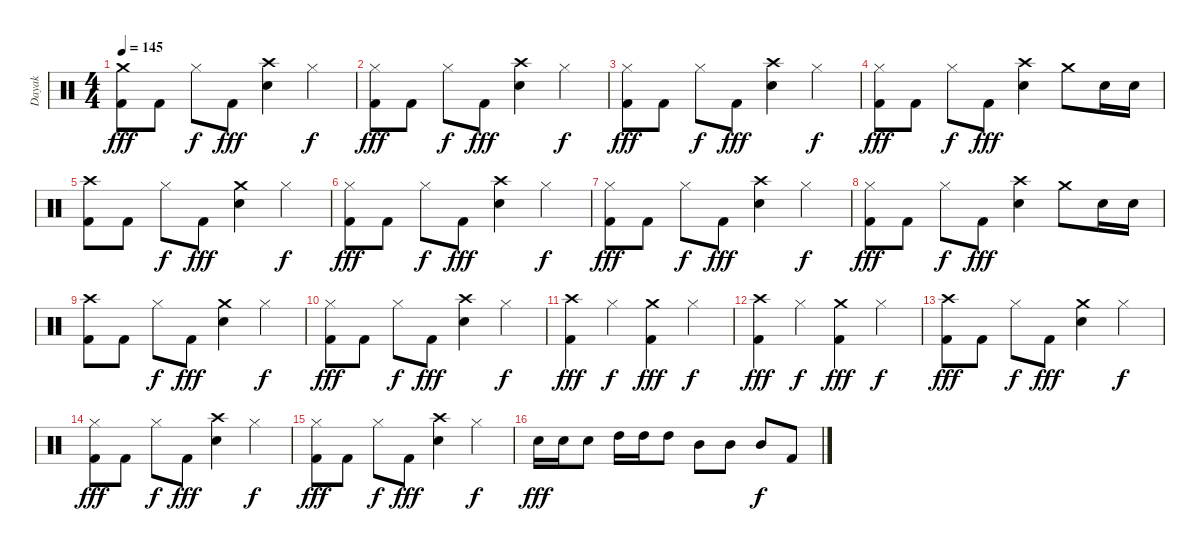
\track ("Dayak" "Dayak") {instrument percussion}
\staff {score}
\articulation defaults
\ts (4 4)
\tempo 145
\clef neutral
\ks c
("Crash medium (hit)" "Kick (hit) 2").8{dy fff} "Kick (hit) 2".8 "Hi-Hat (closed)".8{dy f} "Kick (hit) 2".8{dy fff} ("Crash high (hit)" "Snare (hit) 2").4 "Hi-Hat (closed)".4{dy f} |
("Hi-Hat (closed)" "Kick (hit) 2").8{dy fff} "Kick (hit) 2".8 "Hi-Hat (closed)".8{dy f} "Kick (hit) 2".8{dy fff} ("Crash high (hit)" "Snare (hit) 2").4 "Hi-Hat (closed)".4{dy f} |
("Hi-Hat (closed)" "Kick (hit) 2").8{dy fff} "Kick (hit) 2".8 "Hi-Hat (closed)".8{dy f} "Kick (hit) 2".8{dy fff} ("Crash high (hit)" "Snare (hit) 2").4 "Hi-Hat (closed)".4{dy f} |
("Hi-Hat (closed)" "Kick (hit) 2").8{dy fff} "Kick (hit) 2".8 "Hi-Hat (closed)".8{dy f} "Kick (hit) 2".8{dy fff} ("Crash high (hit)" "Snare (hit) 2").4 "Crash medium (hit)".8 "Snare (hit) 2".16 "Snare (hit) 2".16 |
("Crash high (hit)" "Kick (hit) 2").8 "Kick (hit) 2".8 "Hi-Hat (closed)".8{dy f} "Kick (hit) 2".8{dy fff} ("Crash medium (hit)" "Snare (hit) 2").4 "Hi-Hat (closed)".4{dy f} |
("Hi-Hat (closed)" "Kick (hit) 2").8{dy fff} "Kick (hit) 2".8 "Hi-Hat (closed)".8{dy f} "Kick (hit) 2".8{dy fff} ("Crash high (hit)" "Snare (hit) 2").4 "Hi-Hat (closed)".4{dy f} |
("Hi-Hat (closed)" "Kick (hit) 2").8{dy fff} "Kick (hit) 2".8 "Hi-Hat (closed)".8{dy f} "Kick (hit) 2".8{dy fff} ("Crash high (hit)" "Snare (hit) 2").4 "Hi-Hat (closed)".4{dy f} |
("Hi-Hat (closed)" "Kick (hit) 2").8{dy fff} "Kick (hit) 2".8 "Hi-Hat (closed)".8{dy f} "Kick (hit) 2".8{dy fff} ("Crash high (hit)" "Snare (hit) 2").4 "Crash medium (hit)".8 "Snare (hit) 2".16 "Snare (hit) 2".16 |
("Crash high (hit)" "Kick (hit) 2").8 "Kick (hit) 2".8 "Hi-Hat (closed)".8{dy f} "Kick (hit) 2".8{dy fff} ("Crash medium (hit)" "Snare (hit) 2").4 "Hi-Hat (closed)".4{dy f} |
("Hi-Hat (closed)" "Kick (hit) 2").8{dy fff} "Kick (hit) 2".8 "Hi-Hat (closed)".8{dy f} "Kick (hit) 2".8{dy fff} ("Crash high (hit)" "Snare (hit) 2").4 "Hi-Hat (closed)".4{dy f} |
("Crash high (hit)" "Kick (hit) 2").4{dy fff} "Hi-Hat (closed)".4{dy f} ("Crash medium (hit)" "Kick (hit) 2").4{dy fff} "Hi-Hat (closed)".4{dy f} |
("Crash high (hit)" "Kick (hit) 2").4{dy fff} "Hi-Hat (closed)".4{dy f} ("Crash medium (hit)" "Kick (hit) 2").4{dy fff} "Hi-Hat (closed)".4{dy f} |
("Crash high (hit)" "Kick (hit) 2").8{dy fff} "Kick (hit) 2".8 "Hi-Hat (closed)".8{dy f} "Kick (hit) 2".8{dy fff} ("Crash medium (hit)" "Snare (hit) 2").4 "Hi-Hat (closed)".4{dy f} |
("Hi-Hat (closed)" "Kick (hit) 2").8{dy fff} "Kick (hit) 2".8 "Hi-Hat (closed)".8{dy f} "Kick (hit) 2".8{dy fff} ("Crash high (hit)" "Snare (hit) 2").4 "Hi-Hat (closed)".4{dy f} |
("Hi-Hat (closed)" "Kick (hit) 2").8{dy fff} "Kick (hit) 2".8 "Hi-Hat (closed)".8{dy f} "Kick (hit) 2".8{dy fff} ("Crash high (hit)" "Snare (hit) 2").4 "Hi-Hat (closed)".4{dy f} |
"Snare (hit) 2".16{dy fff} "Snare (hit) 2".16 "Snare (hit) 2".8 "High Tom (hit)".16 "High Tom (hit)".16 "High Tom (hit)".8 "Mid Tom (hit)".8 "Mid Tom (hit)".8 "Mid Tom (hit)".8{dy f} "Kick (hit) 2".8
